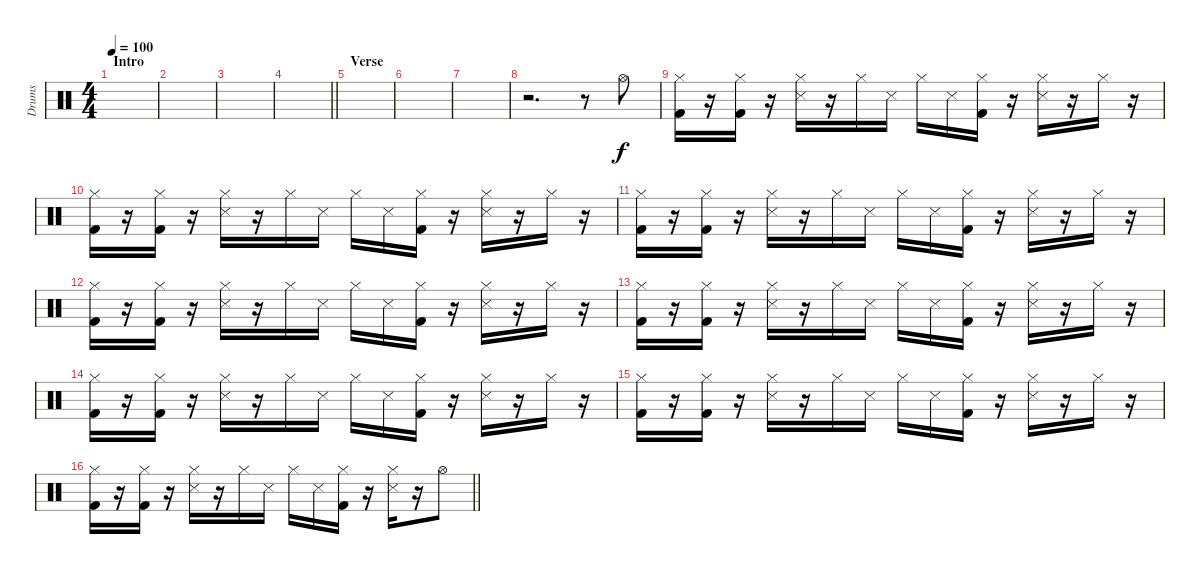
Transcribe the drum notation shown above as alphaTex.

\track ("Drums" "Drums") {instrument percussion}
\staff {score}
\articulation defaults
\ts (4 4)
\section ("" "Intro")
\tempo 100
\clef neutral
\ks c
|
|
|
\barLineRight lightlight
|
\section ("" "Verse")
|
|
|
r.2{d} r.8 "Hi-Hat (open)".8 |
("Hi-Hat (closed)" "Kick (hit) 2").16 r.16 ("Hi-Hat (closed)" "Kick (hit) 2").16 r.16 ("Hi-Hat (closed)" "Snare (side stick) 3").16 r.16 "Hi-Hat (closed)".16 "Snare (side stick) 3".16 "Hi-Hat (closed)".16 "Snare (side stick) 3".16 ("Hi-Hat (closed)" "Kick (hit) 2").16 r.16 ("Hi-Hat (closed)" "Snare (side stick) 3").16 r.16 "Hi-Hat (closed)".16 r.16 |
("Hi-Hat (closed)" "Kick (hit) 2").16 r.16 ("Hi-Hat (closed)" "Kick (hit) 2").16 r.16 ("Hi-Hat (closed)" "Snare (side stick) 3").16 r.16 "Hi-Hat (closed)".16 "Snare (side stick) 3".16 "Hi-Hat (closed)".16 "Snare (side stick) 3".16 ("Hi-Hat (closed)" "Kick (hit) 2").16 r.16 ("Hi-Hat (closed)" "Snare (side stick) 3").16 r.16 "Hi-Hat (closed)".16 r.16 |
("Hi-Hat (closed)" "Kick (hit) 2").16 r.16 ("Hi-Hat (closed)" "Kick (hit) 2").16 r.16 ("Hi-Hat (closed)" "Snare (side stick) 3").16 r.16 "Hi-Hat (closed)".16 "Snare (side stick) 3".16 "Hi-Hat (closed)".16 "Snare (side stick) 3".16 ("Hi-Hat (closed)" "Kick (hit) 2").16 r.16 ("Hi-Hat (closed)" "Snare (side stick) 3").16 r.16 "Hi-Hat (closed)".16 r.16 |
("Hi-Hat (closed)" "Kick (hit) 2").16 r.16 ("Hi-Hat (closed)" "Kick (hit) 2").16 r.16 ("Hi-Hat (closed)" "Snare (side stick) 3").16 r.16 "Hi-Hat (closed)".16 "Snare (side stick) 3".16 "Hi-Hat (closed)".16 "Snare (side stick) 3".16 ("Hi-Hat (closed)" "Kick (hit) 2").16 r.16 ("Hi-Hat (closed)" "Snare (side stick) 3").16 r.16 "Hi-Hat (closed)".16 r.16 |
("Hi-Hat (closed)" "Kick (hit) 2").16 r.16 ("Hi-Hat (closed)" "Kick (hit) 2").16 r.16 ("Hi-Hat (closed)" "Snare (side stick) 3").16 r.16 "Hi-Hat (closed)".16 "Snare (side stick) 3".16 "Hi-Hat (closed)".16 "Snare (side stick) 3".16 ("Hi-Hat (closed)" "Kick (hit) 2").16 r.16 ("Hi-Hat (closed)" "Snare (side stick) 3").16 r.16 "Hi-Hat (closed)".16 r.16 |
("Hi-Hat (closed)" "Kick (hit) 2").16 r.16 ("Hi-Hat (closed)" "Kick (hit) 2").16 r.16 ("Hi-Hat (closed)" "Snare (side stick) 3").16 r.16 "Hi-Hat (closed)".16 "Snare (side stick) 3".16 "Hi-Hat (closed)".16 "Snare (side stick) 3".16 ("Hi-Hat (closed)" "Kick (hit) 2").16 r.16 ("Hi-Hat (closed)" "Snare (side stick) 3").16 r.16 "Hi-Hat (closed)".16 r.16 |
("Hi-Hat (closed)" "Kick (hit) 2").16 r.16 ("Hi-Hat (closed)" "Kick (hit) 2").16 r.16 ("Hi-Hat (closed)" "Snare (side stick) 3").16 r.16 "Hi-Hat (closed)".16 "Snare (side stick) 3".16 "Hi-Hat (closed)".16 "Snare (side stick) 3".16 ("Hi-Hat (closed)" "Kick (hit) 2").16 r.16 ("Hi-Hat (closed)" "Snare (side stick) 3").16 r.16 "Hi-Hat (closed)".16 r.16 |
\barLineRight lightlight
("Hi-Hat (closed)" "Kick (hit) 2").16 r.16 ("Hi-Hat (closed)" "Kick (hit) 2").16 r.16 ("Hi-Hat (closed)" "Snare (side stick) 3").16 r.16 "Hi-Hat (closed)".16 "Snare (side stick) 3".16 "Hi-Hat (closed)".16 "Snare (side stick) 3".16 ("Hi-Hat (closed)" "Kick (hit) 2").16 r.16 ("Hi-Hat (closed)" "Snare (side stick) 3").16 r.16 "Hi-Hat (open)".8
